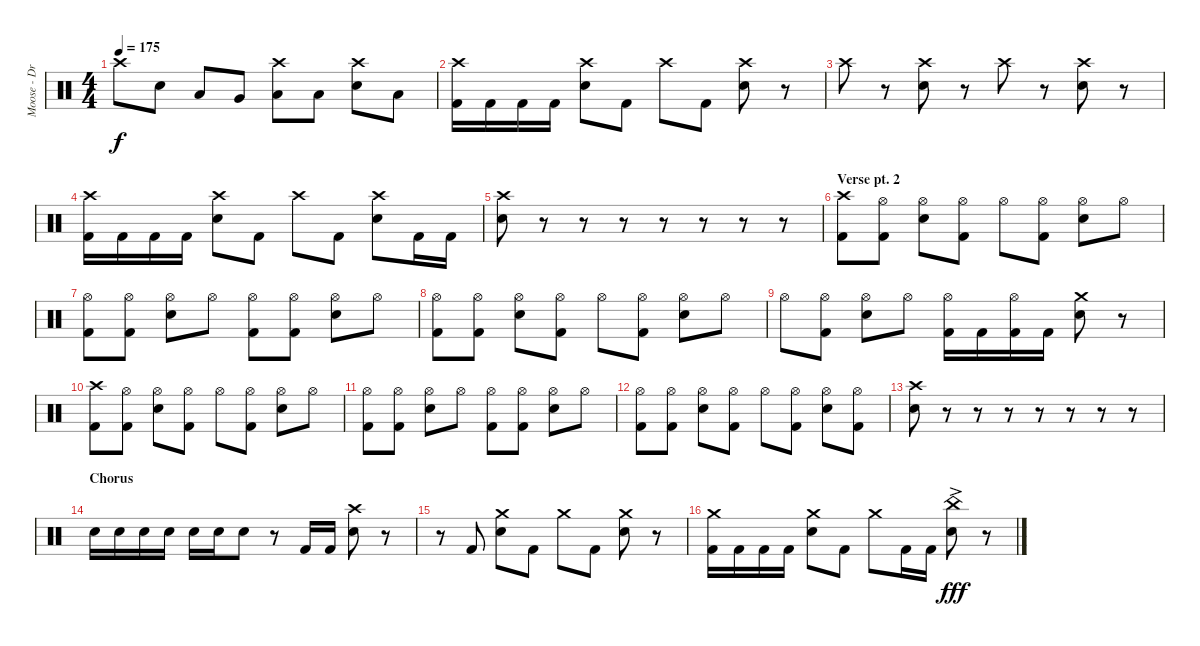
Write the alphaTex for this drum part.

\track ("Moose - Drums" "Moose - Dr") {instrument percussion}
\staff {score}
\articulation defaults
\ts (4 4)
\tempo 175
\clef neutral
\ks c "Crash high (hit)".8{dy f} "Electric Snare (hit)".8 "Low Tom (hit)".8 "Very Low Tom (hit)".8
("Crash high (hit)" "Low Floor Tom (hit)").8 "Low Floor Tom (hit)".8 ("Crash high (hit)" "Electric Snare (hit)").8 "Low Floor Tom (hit)".8 |
("Crash high (hit)" "Kick (hit) 2").16 "Kick (hit) 2".16 "Kick (hit) 2".16 "Kick (hit) 2".16 ("Crash high (hit)" "Electric Snare (hit)").8 "Kick (hit) 2".8 "Crash high (hit)".8 "Kick (hit) 2".8 ("Crash high (hit)" "Electric Snare (hit)").8 r.8 |
"Crash high (hit)".8 r.8 ("Crash high (hit)" "Electric Snare (hit)").8 r.8 "Crash high (hit)".8 r.8 ("Crash high (hit)" "Electric Snare (hit)").8 r.8 |
("Crash high (hit)" "Kick (hit) 2").16 "Kick (hit) 2".16 "Kick (hit) 2".16 "Kick (hit) 2".16 ("Crash high (hit)" "Electric Snare (hit)").8 "Kick (hit) 2".8 "Crash high (hit)".8 "Kick (hit) 2".8 ("Crash high (hit)" "Electric Snare (hit)").8 "Kick (hit) 2".16 "Kick (hit) 2".16 |
("Crash high (hit)" "Electric Snare (hit)").8 r.8 r.8 r.8 r.8 r.8 r.8 r.8 |
\section ("" "Verse pt. 2")
("Crash high (hit)" "Kick (hit) 2").8 ("Hi-Hat (open)" "Kick (hit) 2").8 ("Hi-Hat (open)" "Electric Snare (hit)").8 ("Hi-Hat (open)" "Kick (hit) 2").8 "Hi-Hat (open)".8 ("Hi-Hat (open)" "Kick (hit) 2").8 ("Hi-Hat (open)" "Electric Snare (hit)").8 "Hi-Hat (open)".8 |
("Hi-Hat (open)" "Kick (hit) 2").8 ("Hi-Hat (open)" "Kick (hit) 2").8 ("Hi-Hat (open)" "Electric Snare (hit)").8 "Hi-Hat (open)".8 ("Hi-Hat (open)" "Kick (hit) 2").8 ("Hi-Hat (open)" "Kick (hit) 2").8 ("Hi-Hat (open)" "Electric Snare (hit)").8 "Hi-Hat (open)".8 |
("Hi-Hat (open)" "Kick (hit) 2").8 ("Hi-Hat (open)" "Kick (hit) 2").8 ("Hi-Hat (open)" "Electric Snare (hit)").8 ("Hi-Hat (open)" "Kick (hit) 2").8 "Hi-Hat (open)".8 ("Hi-Hat (open)" "Kick (hit) 2").8 ("Hi-Hat (open)" "Electric Snare (hit)").8 "Hi-Hat (open)".8 |
"Hi-Hat (open)".8 ("Hi-Hat (open)" "Kick (hit) 2").8 ("Hi-Hat (open)" "Electric Snare (hit)").8 "Hi-Hat (open)".8 ("Hi-Hat (open)" "Kick (hit) 2").16 "Kick (hit) 2".16 ("Hi-Hat (open)" "Kick (hit) 2").16 "Kick (hit) 2".16 ("Crash medium (hit)" "Electric Snare (hit)").8 r.8 |
("Crash high (hit)" "Kick (hit) 2").8 ("Hi-Hat (open)" "Kick (hit) 2").8 ("Hi-Hat (open)" "Electric Snare (hit)").8 ("Hi-Hat (open)" "Kick (hit) 2").8 "Hi-Hat (open)".8 ("Hi-Hat (open)" "Kick (hit) 2").8 ("Hi-Hat (open)" "Electric Snare (hit)").8 "Hi-Hat (open)".8 |
("Hi-Hat (open)" "Kick (hit) 2").8 ("Hi-Hat (open)" "Kick (hit) 2").8 ("Hi-Hat (open)" "Electric Snare (hit)").8 "Hi-Hat (open)".8 ("Hi-Hat (open)" "Kick (hit) 2").8 ("Hi-Hat (open)" "Kick (hit) 2").8 ("Hi-Hat (open)" "Electric Snare (hit)").8 "Hi-Hat (open)".8 |
("Hi-Hat (open)" "Kick (hit) 2").8 ("Hi-Hat (open)" "Kick (hit) 2").8 ("Hi-Hat (open)" "Electric Snare (hit)").8 ("Hi-Hat (open)" "Kick (hit) 2").8 "Hi-Hat (open)".8 ("Hi-Hat (open)" "Kick (hit) 2").8 ("Hi-Hat (open)" "Electric Snare (hit)").8 ("Hi-Hat (open)" "Kick (hit) 2").8 |
("Crash high (hit)" "Electric Snare (hit)").8 r.8 r.8 r.8 r.8 r.8 r.8 r.8 |
\section ("" "Chorus")
"Electric Snare (hit)".16 "Electric Snare (hit)".16 "Electric Snare (hit)".16 "Electric Snare (hit)".16 "Electric Snare (hit)".16 "Electric Snare (hit)".16 "Electric Snare (hit)".8 r.8 "Kick (hit) 2".16 "Kick (hit) 2".16 ("Crash high (hit)" "Electric Snare (hit)").8 r.8 |
r.8 "Kick (hit) 2".8 ("Crash medium (hit)" "Electric Snare (hit)").8 "Kick (hit) 2".8 "Crash medium (hit)".8 "Kick (hit) 2".8 ("Crash medium (hit)" "Electric Snare (hit)").8 r.8 |
("Crash medium (hit)" "Kick (hit) 2").16 "Kick (hit) 2".16 "Kick (hit) 2".16 "Kick (hit) 2".16 ("Crash medium (hit)" "Electric Snare (hit)").8 "Kick (hit) 2".8 "Crash medium (hit)".8 "Kick (hit) 2".16 "Kick (hit) 2".16 ("China (hit)"{ac} "Electric Snare (hit)").8{dy fff} r.8
